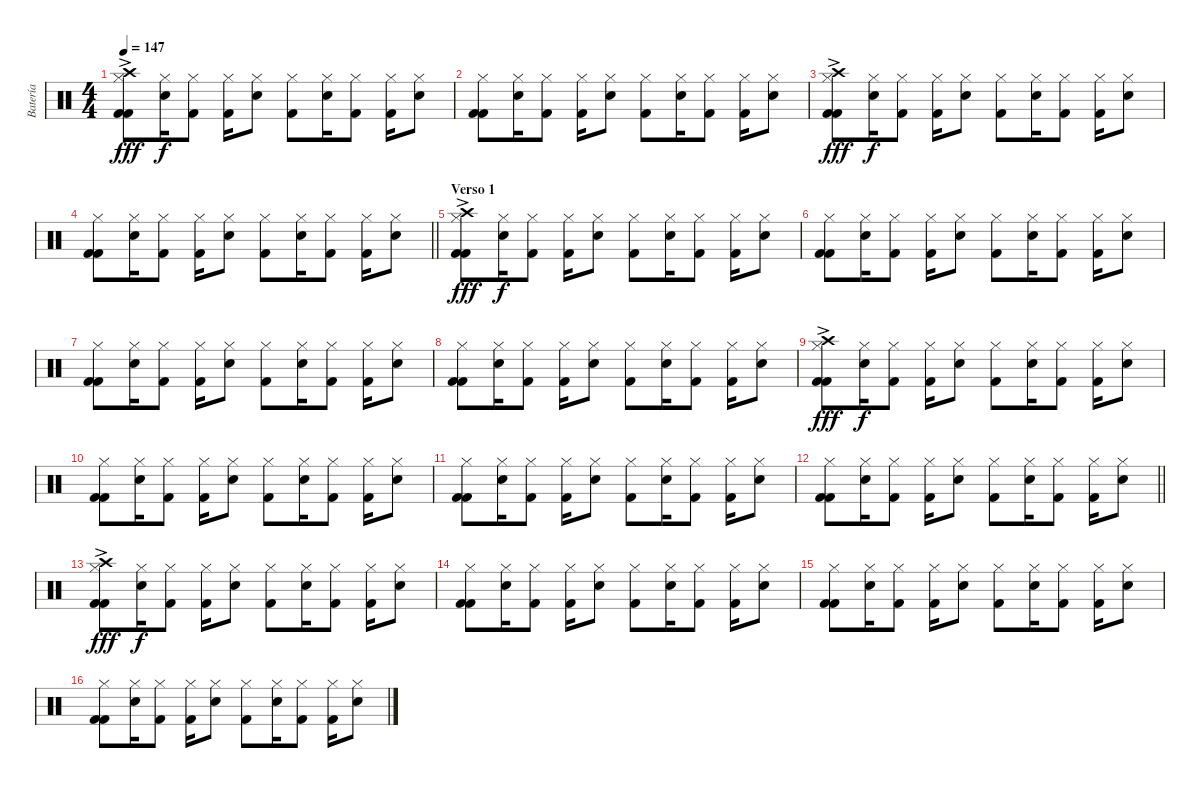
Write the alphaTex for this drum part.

\track ("Batería" "Batería") {instrument percussion}
\staff {score}
\articulation defaults
\ts (4 4)
\tempo 147
\clef neutral
\ks c
("Crash high (hit)"{ac} "Hi-Hat (closed)" "Kick (hit) 2" "Kick (hit) 2").8{dy fff} ("Hi-Hat (closed)" "Electric Snare (hit)").16{dy f} ("Hi-Hat (closed)" "Kick (hit) 2").8 ("Hi-Hat (closed)" "Kick (hit) 2").16 ("Hi-Hat (closed)" "Electric Snare (hit)").8 ("Hi-Hat (closed)" "Kick (hit) 2").8 ("Hi-Hat (closed)" "Electric Snare (hit)").16 ("Hi-Hat (closed)" "Kick (hit) 2").8 ("Hi-Hat (closed)" "Kick (hit) 2").16 ("Hi-Hat (closed)" "Electric Snare (hit)").8 |
("Hi-Hat (closed)" "Kick (hit) 2" "Kick (hit) 2").8 ("Hi-Hat (closed)" "Electric Snare (hit)").16 ("Hi-Hat (closed)" "Kick (hit) 2").8 ("Hi-Hat (closed)" "Kick (hit) 2").16 ("Hi-Hat (closed)" "Electric Snare (hit)").8 ("Hi-Hat (closed)" "Kick (hit) 2").8 ("Hi-Hat (closed)" "Electric Snare (hit)").16 ("Hi-Hat (closed)" "Kick (hit) 2").8 ("Hi-Hat (closed)" "Kick (hit) 2").16 ("Hi-Hat (closed)" "Electric Snare (hit)").8 |
("Crash high (hit)"{ac} "Hi-Hat (closed)" "Kick (hit) 2" "Kick (hit) 2").8{dy fff} ("Hi-Hat (closed)" "Electric Snare (hit)").16{dy f} ("Hi-Hat (closed)" "Kick (hit) 2").8 ("Hi-Hat (closed)" "Kick (hit) 2").16 ("Hi-Hat (closed)" "Electric Snare (hit)").8 ("Hi-Hat (closed)" "Kick (hit) 2").8 ("Hi-Hat (closed)" "Electric Snare (hit)").16 ("Hi-Hat (closed)" "Kick (hit) 2").8 ("Hi-Hat (closed)" "Kick (hit) 2").16 ("Hi-Hat (closed)" "Electric Snare (hit)").8 |
\barLineRight lightlight
("Hi-Hat (closed)" "Kick (hit) 2" "Kick (hit) 2").8 ("Hi-Hat (closed)" "Electric Snare (hit)").16 ("Hi-Hat (closed)" "Kick (hit) 2").8 ("Hi-Hat (closed)" "Kick (hit) 2").16 ("Hi-Hat (closed)" "Electric Snare (hit)").8 ("Hi-Hat (closed)" "Kick (hit) 2").8 ("Hi-Hat (closed)" "Electric Snare (hit)").16 ("Hi-Hat (closed)" "Kick (hit) 2").8 ("Hi-Hat (closed)" "Kick (hit) 2").16 ("Hi-Hat (closed)" "Electric Snare (hit)").8 |
\section ("" "Verso 1")
("Crash high (hit)"{ac} "Hi-Hat (closed)" "Kick (hit) 2" "Kick (hit) 2").8{dy fff} ("Hi-Hat (closed)" "Electric Snare (hit)").16{dy f} ("Hi-Hat (closed)" "Kick (hit) 2").8 ("Hi-Hat (closed)" "Kick (hit) 2").16 ("Hi-Hat (closed)" "Electric Snare (hit)").8 ("Hi-Hat (closed)" "Kick (hit) 2").8 ("Hi-Hat (closed)" "Electric Snare (hit)").16 ("Hi-Hat (closed)" "Kick (hit) 2").8 ("Hi-Hat (closed)" "Kick (hit) 2").16 ("Hi-Hat (closed)" "Electric Snare (hit)").8 |
("Hi-Hat (closed)" "Kick (hit) 2" "Kick (hit) 2").8 ("Hi-Hat (closed)" "Electric Snare (hit)").16 ("Hi-Hat (closed)" "Kick (hit) 2").8 ("Hi-Hat (closed)" "Kick (hit) 2").16 ("Hi-Hat (closed)" "Electric Snare (hit)").8 ("Hi-Hat (closed)" "Kick (hit) 2").8 ("Hi-Hat (closed)" "Electric Snare (hit)").16 ("Hi-Hat (closed)" "Kick (hit) 2").8 ("Hi-Hat (closed)" "Kick (hit) 2").16 ("Hi-Hat (closed)" "Electric Snare (hit)").8 |
("Hi-Hat (closed)" "Kick (hit) 2" "Kick (hit) 2").8 ("Hi-Hat (closed)" "Electric Snare (hit)").16 ("Hi-Hat (closed)" "Kick (hit) 2").8 ("Hi-Hat (closed)" "Kick (hit) 2").16 ("Hi-Hat (closed)" "Electric Snare (hit)").8 ("Hi-Hat (closed)" "Kick (hit) 2").8 ("Hi-Hat (closed)" "Electric Snare (hit)").16 ("Hi-Hat (closed)" "Kick (hit) 2").8 ("Hi-Hat (closed)" "Kick (hit) 2").16 ("Hi-Hat (closed)" "Electric Snare (hit)").8 |
("Hi-Hat (closed)" "Kick (hit) 2" "Kick (hit) 2").8 ("Hi-Hat (closed)" "Electric Snare (hit)").16 ("Hi-Hat (closed)" "Kick (hit) 2").8 ("Hi-Hat (closed)" "Kick (hit) 2").16 ("Hi-Hat (closed)" "Electric Snare (hit)").8 ("Hi-Hat (closed)" "Kick (hit) 2").8 ("Hi-Hat (closed)" "Electric Snare (hit)").16 ("Hi-Hat (closed)" "Kick (hit) 2").8 ("Hi-Hat (closed)" "Kick (hit) 2").16 ("Hi-Hat (closed)" "Electric Snare (hit)").8 |
("Crash high (hit)"{ac} "Hi-Hat (closed)" "Kick (hit) 2" "Kick (hit) 2").8{dy fff} ("Hi-Hat (closed)" "Electric Snare (hit)").16{dy f} ("Hi-Hat (closed)" "Kick (hit) 2").8 ("Hi-Hat (closed)" "Kick (hit) 2").16 ("Hi-Hat (closed)" "Electric Snare (hit)").8 ("Hi-Hat (closed)" "Kick (hit) 2").8 ("Hi-Hat (closed)" "Electric Snare (hit)").16 ("Hi-Hat (closed)" "Kick (hit) 2").8 ("Hi-Hat (closed)" "Kick (hit) 2").16 ("Hi-Hat (closed)" "Electric Snare (hit)").8 |
("Hi-Hat (closed)" "Kick (hit) 2" "Kick (hit) 2").8 ("Hi-Hat (closed)" "Electric Snare (hit)").16 ("Hi-Hat (closed)" "Kick (hit) 2").8 ("Hi-Hat (closed)" "Kick (hit) 2").16 ("Hi-Hat (closed)" "Electric Snare (hit)").8 ("Hi-Hat (closed)" "Kick (hit) 2").8 ("Hi-Hat (closed)" "Electric Snare (hit)").16 ("Hi-Hat (closed)" "Kick (hit) 2").8 ("Hi-Hat (closed)" "Kick (hit) 2").16 ("Hi-Hat (closed)" "Electric Snare (hit)").8 |
("Hi-Hat (closed)" "Kick (hit) 2" "Kick (hit) 2").8 ("Hi-Hat (closed)" "Electric Snare (hit)").16 ("Hi-Hat (closed)" "Kick (hit) 2").8 ("Hi-Hat (closed)" "Kick (hit) 2").16 ("Hi-Hat (closed)" "Electric Snare (hit)").8 ("Hi-Hat (closed)" "Kick (hit) 2").8 ("Hi-Hat (closed)" "Electric Snare (hit)").16 ("Hi-Hat (closed)" "Kick (hit) 2").8 ("Hi-Hat (closed)" "Kick (hit) 2").16 ("Hi-Hat (closed)" "Electric Snare (hit)").8 |
\barLineRight lightlight
("Hi-Hat (closed)" "Kick (hit) 2" "Kick (hit) 2").8 ("Hi-Hat (closed)" "Electric Snare (hit)").16 ("Hi-Hat (closed)" "Kick (hit) 2").8 ("Hi-Hat (closed)" "Kick (hit) 2").16 ("Hi-Hat (closed)" "Electric Snare (hit)").8 ("Hi-Hat (closed)" "Kick (hit) 2").8 ("Hi-Hat (closed)" "Electric Snare (hit)").16 ("Hi-Hat (closed)" "Kick (hit) 2").8 ("Hi-Hat (closed)" "Kick (hit) 2").16 ("Hi-Hat (closed)" "Electric Snare (hit)").8 |
\section ("" "")
("Crash high (hit)"{ac} "Hi-Hat (closed)" "Kick (hit) 2" "Kick (hit) 2").8{dy fff} ("Hi-Hat (closed)" "Electric Snare (hit)").16{dy f} ("Hi-Hat (closed)" "Kick (hit) 2").8 ("Hi-Hat (closed)" "Kick (hit) 2").16 ("Hi-Hat (closed)" "Electric Snare (hit)").8 ("Hi-Hat (closed)" "Kick (hit) 2").8 ("Hi-Hat (closed)" "Electric Snare (hit)").16 ("Hi-Hat (closed)" "Kick (hit) 2").8 ("Hi-Hat (closed)" "Kick (hit) 2").16 ("Hi-Hat (closed)" "Electric Snare (hit)").8 |
("Hi-Hat (closed)" "Kick (hit) 2" "Kick (hit) 2").8 ("Hi-Hat (closed)" "Electric Snare (hit)").16 ("Hi-Hat (closed)" "Kick (hit) 2").8 ("Hi-Hat (closed)" "Kick (hit) 2").16 ("Hi-Hat (closed)" "Electric Snare (hit)").8 ("Hi-Hat (closed)" "Kick (hit) 2").8 ("Hi-Hat (closed)" "Electric Snare (hit)").16 ("Hi-Hat (closed)" "Kick (hit) 2").8 ("Hi-Hat (closed)" "Kick (hit) 2").16 ("Hi-Hat (closed)" "Electric Snare (hit)").8 |
("Hi-Hat (closed)" "Kick (hit) 2" "Kick (hit) 2").8 ("Hi-Hat (closed)" "Electric Snare (hit)").16 ("Hi-Hat (closed)" "Kick (hit) 2").8 ("Hi-Hat (closed)" "Kick (hit) 2").16 ("Hi-Hat (closed)" "Electric Snare (hit)").8 ("Hi-Hat (closed)" "Kick (hit) 2").8 ("Hi-Hat (closed)" "Electric Snare (hit)").16 ("Hi-Hat (closed)" "Kick (hit) 2").8 ("Hi-Hat (closed)" "Kick (hit) 2").16 ("Hi-Hat (closed)" "Electric Snare (hit)").8 |
("Hi-Hat (closed)" "Kick (hit) 2" "Kick (hit) 2").8 ("Hi-Hat (closed)" "Electric Snare (hit)").16 ("Hi-Hat (closed)" "Kick (hit) 2").8 ("Hi-Hat (closed)" "Kick (hit) 2").16 ("Hi-Hat (closed)" "Electric Snare (hit)").8 ("Hi-Hat (closed)" "Kick (hit) 2").8 ("Hi-Hat (closed)" "Electric Snare (hit)").16 ("Hi-Hat (closed)" "Kick (hit) 2").8 ("Hi-Hat (closed)" "Kick (hit) 2").16 ("Hi-Hat (closed)" "Electric Snare (hit)").8
